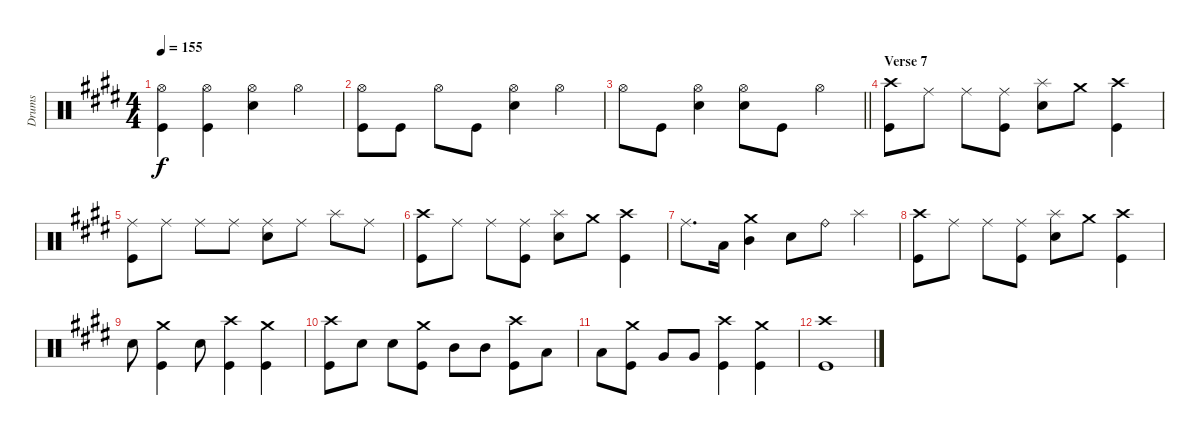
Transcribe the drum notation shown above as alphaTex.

\track ("Drums" "Drums") {instrument percussion}
\staff {score}
\articulation defaults
\ts (4 4)
\tempo 155
\clef neutral
\ks e
("Hi-Hat (open)" "Kick (hit)").4{dy f} ("Hi-Hat (open)" "Kick (hit)").4 ("Hi-Hat (open)" "Snare (hit) 2").4 "Hi-Hat (open)".4 |
("Hi-Hat (open)" "Kick (hit)").8 "Kick (hit)".8 "Hi-Hat (open)".8 "Kick (hit)".8 ("Hi-Hat (open)" "Snare (hit) 2").4 "Hi-Hat (open)".4 |
\barLineRight lightlight "Hi-Hat (open)".8 "Kick (hit)".8
("Hi-Hat (open)" "Snare (hit) 2").4 ("Hi-Hat (open)" "Snare (hit) 2").8 "Kick (hit)".8 "Hi-Hat (open)".4 |
\section ("" "Verse 7")
("Crash high (hit)" "Kick (hit)").8 "Ride (middle)".8 "Ride (middle)".8 ("Ride (middle)" "Kick (hit)").8 ("Splash (hit)" "Snare (hit) 2").8 "Crash medium (hit)".8 ("Crash high (hit)" "Kick (hit)").4 |
("Ride (middle)" "Kick (hit)").8 "Ride (middle)".8 "Ride (middle)".8 "Ride (middle)".8 ("Ride (middle)" "Snare (hit) 2").8 "Ride (middle)".8 "Splash (hit)".8 "Ride (middle)".8 |
("Crash high (hit)" "Kick (hit)").8 "Ride (middle)".8 "Ride (middle)".8 ("Ride (middle)" "Kick (hit)").8 ("Splash (hit)" "Snare (hit) 2").8 "Crash medium (hit)".8 ("Crash high (hit)" "Kick (hit)").4 |
"Ride (middle)".8{d} "Low Tom (hit)".16 ("Crash medium (hit)" "Mid Tom (hit)").4 "Snare (hit) 2".8 "Ride (bell)".8 "Splash (hit)".4 |
("Crash high (hit)" "Kick (hit)").8 "Ride (middle)".8 "Ride (middle)".8 ("Ride (middle)" "Kick (hit)").8 ("Splash (hit)" "Snare (hit) 2").8 "Crash medium (hit)".8 ("Crash high (hit)" "Kick (hit)").4 |
"Snare (hit) 2".8 ("Crash medium (hit)" "Kick (hit)").4 "Snare (hit) 2".8 ("Crash high (hit)" "Kick (hit)").4 ("Crash medium (hit)" "Kick (hit)").4 |
("Crash high (hit)" "Kick (hit)").8 "Snare (hit) 2".8 "Snare (hit) 2".8 ("Crash medium (hit)" "Kick (hit)").8 "Mid Tom (hit)".8 "Mid Tom (hit)".8 ("Crash high (hit)" "Kick (hit)").8 "Low Tom (hit)".8 |
"Low Tom (hit)".8 ("Crash medium (hit)" "Kick (hit)").8 "Very Low Tom (hit)".8 "Very Low Tom (hit)".8 ("Crash high (hit)" "Kick (hit)").4 ("Crash medium (hit)" "Kick (hit)").4 |
("Crash high (hit)" "Kick (hit)").1
